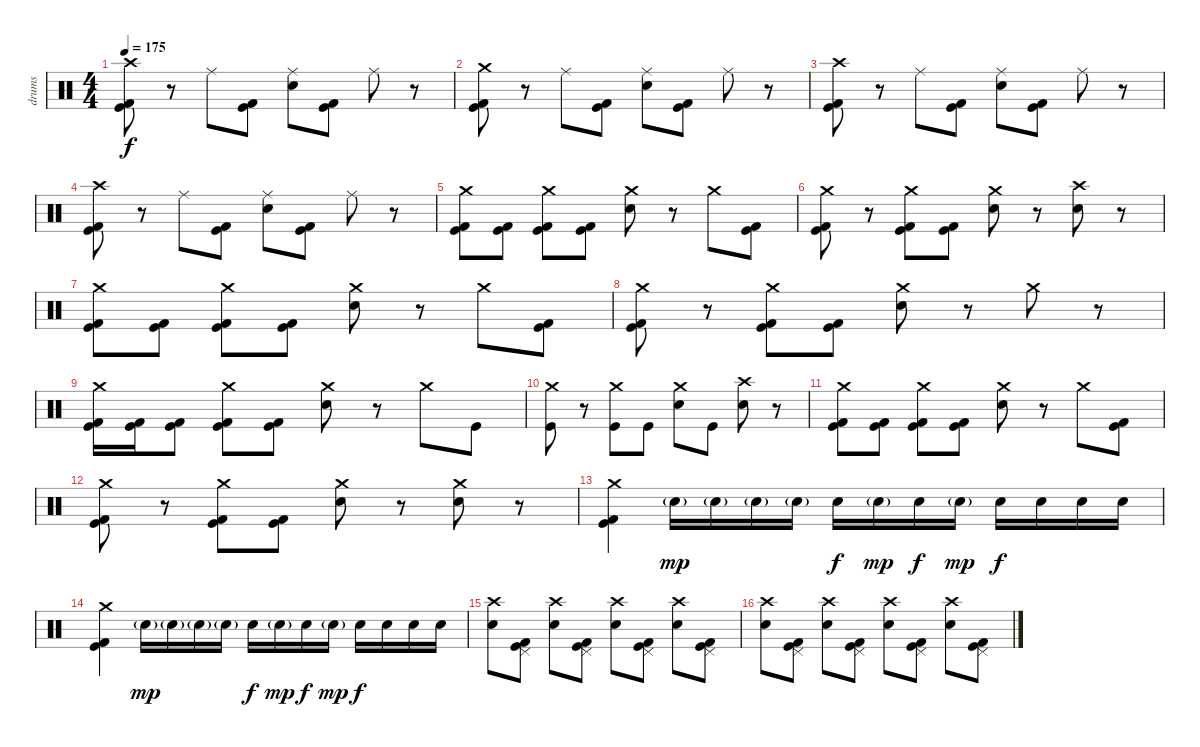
\track ("drums" "drums") {instrument percussion}
\staff {score}
\articulation defaults
\ts (4 4)
\tempo 175
\clef neutral
\ks c
("Kick (hit)" "Kick (hit) 2" "Crash high (hit)").8{dy f} r.8 "Ride (middle)".8 ("Kick (hit)" "Kick (hit) 2").8 ("Electric Snare (hit)" "Ride (middle)").8 ("Kick (hit)" "Kick (hit) 2").8 "Ride (middle)".8 r.8 |
("Kick (hit)" "Kick (hit) 2" "Crash medium (hit)").8 r.8 "Ride (middle)".8 ("Kick (hit)" "Kick (hit) 2").8 ("Electric Snare (hit)" "Ride (middle)").8 ("Kick (hit)" "Kick (hit) 2").8 "Ride (middle)".8 r.8 |
("Kick (hit)" "Kick (hit) 2" "Crash high (hit)").8 r.8 "Ride (middle)".8 ("Kick (hit)" "Kick (hit) 2").8 ("Electric Snare (hit)" "Ride (middle)").8 ("Kick (hit)" "Kick (hit) 2").8 "Ride (middle)".8 r.8 |
("Kick (hit)" "Kick (hit) 2" "Crash high (hit)").8 r.8 "Ride (middle)".8 ("Kick (hit)" "Kick (hit) 2").8 ("Electric Snare (hit)" "Ride (middle)").8 ("Kick (hit)" "Kick (hit) 2").8 "Ride (middle)".8 r.8 |
("Kick (hit)" "Kick (hit) 2" "Crash medium (hit)").8 ("Kick (hit)" "Kick (hit) 2").8 ("Kick (hit)" "Kick (hit) 2" "Crash medium (hit)").8 ("Kick (hit)" "Kick (hit) 2").8 ("Electric Snare (hit)" "Crash medium (hit)").8 r.8 "Crash medium (hit)".8 ("Kick (hit)" "Kick (hit) 2").8 |
("Kick (hit)" "Kick (hit) 2" "Crash medium (hit)").8 r.8 ("Kick (hit)" "Kick (hit) 2" "Crash medium (hit)").8 ("Kick (hit)" "Kick (hit) 2").8 ("Electric Snare (hit)" "Crash medium (hit)").8 r.8 ("Electric Snare (hit)" "Crash high (hit)").8 r.8 |
("Kick (hit)" "Kick (hit) 2" "Crash medium (hit)").8 ("Kick (hit)" "Kick (hit) 2").8 ("Kick (hit)" "Kick (hit) 2" "Crash medium (hit)").8 ("Kick (hit)" "Kick (hit) 2").8 ("Electric Snare (hit)" "Crash medium (hit)").8 r.8 "Crash medium (hit)".8 ("Kick (hit)" "Kick (hit) 2").8 |
("Kick (hit)" "Kick (hit) 2" "Crash medium (hit)").8 r.8 ("Kick (hit)" "Kick (hit) 2" "Crash medium (hit)").8 ("Kick (hit)" "Kick (hit) 2").8 ("Electric Snare (hit)" "Crash medium (hit)").8 r.8 "Crash medium (hit)".8 r.8 |
("Kick (hit)" "Kick (hit) 2" "Crash medium (hit)").16 ("Kick (hit)" "Kick (hit) 2").16 ("Kick (hit)" "Kick (hit) 2").8 ("Kick (hit)" "Kick (hit) 2" "Crash medium (hit)").8 ("Kick (hit)" "Kick (hit) 2").8 ("Electric Snare (hit)" "Crash medium (hit)").8 r.8 "Crash medium (hit)".8 "Kick (hit)".8 |
("Kick (hit)" "Crash medium (hit)").8 r.8 ("Kick (hit)" "Crash medium (hit)").8 "Kick (hit)".8 ("Electric Snare (hit)" "Crash medium (hit)").8 "Kick (hit)".8 ("Electric Snare (hit)" "Crash high (hit)").8 r.8 |
("Kick (hit)" "Kick (hit) 2" "Crash medium (hit)").8 ("Kick (hit)" "Kick (hit) 2").8 ("Kick (hit)" "Kick (hit) 2" "Crash medium (hit)").8 ("Kick (hit)" "Kick (hit) 2").8 ("Electric Snare (hit)" "Crash medium (hit)").8 r.8 "Crash medium (hit)".8 ("Kick (hit)" "Kick (hit) 2").8 |
("Kick (hit)" "Kick (hit) 2" "Crash medium (hit)").8 r.8 ("Kick (hit)" "Kick (hit) 2" "Crash medium (hit)").8 ("Kick (hit)" "Kick (hit) 2").8 ("Electric Snare (hit)" "Crash medium (hit)").8 r.8 ("Electric Snare (hit)" "Crash medium (hit)").8 r.8 |
("Kick (hit)" "Kick (hit) 2" "Crash medium (hit)").4 "Electric Snare (hit)"{g}.16{dy mp} "Electric Snare (hit)"{g}.16 "Electric Snare (hit)"{g}.16 "Electric Snare (hit)"{g}.16 "Electric Snare (hit)".16{dy f} "Electric Snare (hit)"{g}.16{dy mp} "Electric Snare (hit)".16{dy f} "Electric Snare (hit)"{g}.16{dy mp} "Electric Snare (hit)".16{dy f} "Electric Snare (hit)".16 "Electric Snare (hit)".16 "Electric Snare (hit)".16 |
("Kick (hit)" "Kick (hit) 2" "Crash medium (hit)").4 "Electric Snare (hit)"{g}.16{dy mp} "Electric Snare (hit)"{g}.16 "Electric Snare (hit)"{g}.16 "Electric Snare (hit)"{g}.16 "Electric Snare (hit)".16{dy f} "Electric Snare (hit)"{g}.16{dy mp} "Electric Snare (hit)".16{dy f} "Electric Snare (hit)"{g}.16{dy mp} "Electric Snare (hit)".16{dy f} "Electric Snare (hit)".16 "Electric Snare (hit)".16 "Electric Snare (hit)".16 |
("Electric Snare (hit)" "Crash high (hit)").8 ("Kick (hit)" "Kick (hit) 2" "Pedal Hi-Hat (hit)").8 ("Electric Snare (hit)" "Crash high (hit)").8 ("Kick (hit)" "Kick (hit) 2" "Pedal Hi-Hat (hit)").8 ("Electric Snare (hit)" "Crash high (hit)").8 ("Kick (hit)" "Kick (hit) 2" "Pedal Hi-Hat (hit)").8 ("Electric Snare (hit)" "Crash high (hit)").8 ("Kick (hit)" "Kick (hit) 2" "Pedal Hi-Hat (hit)").8 |
("Electric Snare (hit)" "Crash high (hit)").8 ("Kick (hit)" "Kick (hit) 2" "Pedal Hi-Hat (hit)").8 ("Electric Snare (hit)" "Crash high (hit)").8 ("Kick (hit)" "Kick (hit) 2" "Pedal Hi-Hat (hit)").8 ("Electric Snare (hit)" "Crash high (hit)").8 ("Kick (hit)" "Kick (hit) 2" "Pedal Hi-Hat (hit)").8 ("Electric Snare (hit)" "Crash high (hit)").8 ("Kick (hit)" "Kick (hit) 2" "Pedal Hi-Hat (hit)").8
